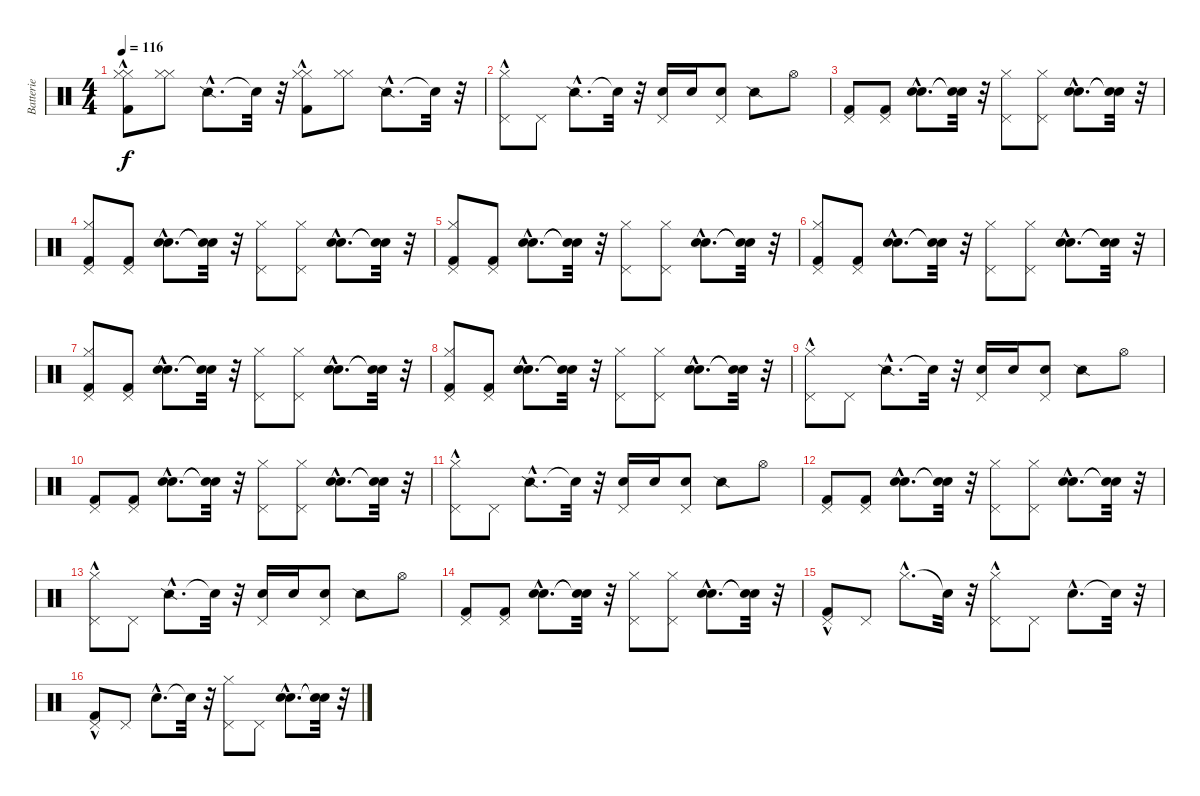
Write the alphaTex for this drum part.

\track ("Batterie" "Batterie") {instrument percussion}
\staff {score}
\articulation defaults
\ts (4 4)
\tempo 116
\clef neutral
\ks c
("Kick (hit) 2"{hac} "Hi-Hat (closed)" "Hi-Hat (closed)").8{dy f} ("Hi-Hat (closed)" "Hi-Hat (closed)").8 "Snare (side stick) 2"{hac}.8{d} "Snare (hit)"{t}.32 r.32 ("Kick (hit) 2"{hac} "Hi-Hat (closed)" "Hi-Hat (closed)").8 ("Hi-Hat (closed)" "Hi-Hat (closed)").8 "Snare (side stick) 2"{hac}.8{d} "Snare (hit)"{t}.32 r.32 |
("Hi-Hat (closed)"{hac} "Pedal Hi-Hat (hit)").8 "Pedal Hi-Hat (hit)".8 "Snare (side stick) 2"{hac}.8{d} "Snare (hit)"{t}.32 r.32 ("Electric Snare (hit)" "Pedal Hi-Hat (hit)").16 "Electric Snare (hit)".16 ("Electric Snare (hit)" "Pedal Hi-Hat (hit)").8 "Snare (side stick) 2".8 "Hi-Hat (open)".8 |
("Kick (hit) 2" "Pedal Hi-Hat (hit)").8 ("Kick (hit) 2" "Pedal Hi-Hat (hit)").8 ("Snare (hit) 2"{hac} "Electric Snare (hit)"{hac}).8{d} ("Snare (hit)"{t} "Snare (hit)"{t}).32 r.32 ("Hi-Hat (closed)" "Pedal Hi-Hat (hit)").8 ("Hi-Hat (closed)" "Pedal Hi-Hat (hit)").8 ("Snare (hit) 2"{hac} "Electric Snare (hit)"{hac}).8{d} ("Snare (hit)"{t} "Snare (hit)"{t}).32 r.32 |
("Kick (hit) 2" "Hi-Hat (closed)" "Pedal Hi-Hat (hit)").8 ("Kick (hit) 2" "Pedal Hi-Hat (hit)").8 ("Snare (hit) 2"{hac} "Electric Snare (hit)"{hac}).8{d} ("Snare (hit)"{t} "Snare (hit)"{t}).32 r.32 ("Hi-Hat (closed)" "Pedal Hi-Hat (hit)").8 ("Hi-Hat (closed)" "Pedal Hi-Hat (hit)").8 ("Snare (hit) 2"{hac} "Electric Snare (hit)"{hac}).8{d} ("Snare (hit)"{t} "Snare (hit)"{t}).32 r.32 |
("Kick (hit) 2" "Hi-Hat (closed)" "Pedal Hi-Hat (hit)").8 ("Kick (hit) 2" "Pedal Hi-Hat (hit)").8 ("Snare (hit) 2"{hac} "Electric Snare (hit)"{hac}).8{d} ("Snare (hit)"{t} "Snare (hit)"{t}).32 r.32 ("Hi-Hat (closed)" "Pedal Hi-Hat (hit)").8 ("Hi-Hat (closed)" "Pedal Hi-Hat (hit)").8 ("Snare (hit) 2"{hac} "Electric Snare (hit)"{hac}).8{d} ("Snare (hit)"{t} "Snare (hit)"{t}).32 r.32 |
("Kick (hit) 2" "Hi-Hat (closed)" "Pedal Hi-Hat (hit)").8 ("Kick (hit) 2" "Pedal Hi-Hat (hit)").8 ("Snare (hit) 2"{hac} "Electric Snare (hit)"{hac}).8{d} ("Snare (hit)"{t} "Snare (hit)"{t}).32 r.32 ("Hi-Hat (closed)" "Pedal Hi-Hat (hit)").8 ("Hi-Hat (closed)" "Pedal Hi-Hat (hit)").8 ("Snare (hit) 2"{hac} "Electric Snare (hit)"{hac}).8{d} ("Snare (hit)"{t} "Snare (hit)"{t}).32 r.32 |
("Kick (hit) 2" "Hi-Hat (closed)" "Pedal Hi-Hat (hit)").8 ("Kick (hit) 2" "Pedal Hi-Hat (hit)").8 ("Snare (hit) 2"{hac} "Electric Snare (hit)"{hac}).8{d} ("Snare (hit)"{t} "Snare (hit)"{t}).32 r.32 ("Hi-Hat (closed)" "Pedal Hi-Hat (hit)").8 ("Hi-Hat (closed)" "Pedal Hi-Hat (hit)").8 ("Snare (hit) 2"{hac} "Electric Snare (hit)"{hac}).8{d} ("Snare (hit)"{t} "Snare (hit)"{t}).32 r.32 |
("Kick (hit) 2" "Hi-Hat (closed)" "Pedal Hi-Hat (hit)").8 ("Kick (hit) 2" "Pedal Hi-Hat (hit)").8 ("Snare (hit) 2"{hac} "Electric Snare (hit)"{hac}).8{d} ("Snare (hit)"{t} "Snare (hit)"{t}).32 r.32 ("Hi-Hat (closed)" "Pedal Hi-Hat (hit)").8 ("Hi-Hat (closed)" "Pedal Hi-Hat (hit)").8 ("Snare (hit) 2"{hac} "Electric Snare (hit)"{hac}).8{d} ("Snare (hit)"{t} "Snare (hit)"{t}).32 r.32 |
("Hi-Hat (closed)"{hac} "Pedal Hi-Hat (hit)").8 "Pedal Hi-Hat (hit)".8 "Snare (side stick) 2"{hac}.8{d} "Snare (hit)"{t}.32 r.32 ("Electric Snare (hit)" "Pedal Hi-Hat (hit)").16 "Electric Snare (hit)".16 ("Electric Snare (hit)" "Pedal Hi-Hat (hit)").8 "Snare (side stick) 2".8 "Hi-Hat (open)".8 |
("Kick (hit) 2" "Pedal Hi-Hat (hit)").8 ("Kick (hit) 2" "Pedal Hi-Hat (hit)").8 ("Snare (hit) 2"{hac} "Electric Snare (hit)"{hac}).8{d} ("Snare (hit)"{t} "Snare (hit)"{t}).32 r.32 ("Hi-Hat (closed)" "Pedal Hi-Hat (hit)").8 ("Hi-Hat (closed)" "Pedal Hi-Hat (hit)").8 ("Snare (hit) 2"{hac} "Electric Snare (hit)"{hac}).8{d} ("Snare (hit)"{t} "Snare (hit)"{t}).32 r.32 |
("Hi-Hat (closed)"{hac} "Pedal Hi-Hat (hit)").8 "Pedal Hi-Hat (hit)".8 "Snare (side stick) 2"{hac}.8{d} "Snare (hit)"{t}.32 r.32 ("Electric Snare (hit)" "Pedal Hi-Hat (hit)").16 "Electric Snare (hit)".16 ("Electric Snare (hit)" "Pedal Hi-Hat (hit)").8 "Snare (side stick) 2".8 "Hi-Hat (open)".8 |
("Kick (hit) 2" "Pedal Hi-Hat (hit)").8 ("Kick (hit) 2" "Pedal Hi-Hat (hit)").8 ("Snare (hit) 2"{hac} "Electric Snare (hit)"{hac}).8{d} ("Snare (hit)"{t} "Snare (hit)"{t}).32 r.32 ("Hi-Hat (closed)" "Pedal Hi-Hat (hit)").8 ("Hi-Hat (closed)" "Pedal Hi-Hat (hit)").8 ("Snare (hit) 2"{hac} "Electric Snare (hit)"{hac}).8{d} ("Snare (hit)"{t} "Snare (hit)"{t}).32 r.32 |
("Hi-Hat (closed)"{hac} "Pedal Hi-Hat (hit)").8 "Pedal Hi-Hat (hit)".8 "Snare (side stick) 2"{hac}.8{d} "Snare (hit)"{t}.32 r.32 ("Electric Snare (hit)" "Pedal Hi-Hat (hit)").16 "Electric Snare (hit)".16 ("Electric Snare (hit)" "Pedal Hi-Hat (hit)").8 "Snare (side stick) 2".8 "Hi-Hat (open)".8 |
("Kick (hit) 2" "Pedal Hi-Hat (hit)").8 ("Kick (hit) 2" "Pedal Hi-Hat (hit)").8 ("Snare (hit) 2"{hac} "Electric Snare (hit)"{hac}).8{d} ("Snare (hit)"{t} "Snare (hit)"{t}).32 r.32 ("Hi-Hat (closed)" "Pedal Hi-Hat (hit)").8 ("Hi-Hat (closed)" "Pedal Hi-Hat (hit)").8 ("Snare (hit) 2"{hac} "Electric Snare (hit)"{hac}).8{d} ("Snare (hit)"{t} "Snare (hit)"{t}).32 r.32 |
("Kick (hit) 2"{hac} "Pedal Hi-Hat (hit)").8 "Pedal Hi-Hat (hit)".8 "Hi-Hat (closed)"{hac}.8{d} "Snare (hit)"{t}.32 r.32 ("Hi-Hat (closed)"{hac} "Pedal Hi-Hat (hit)").8 "Pedal Hi-Hat (hit)".8 "Snare (hit) 2"{hac}.8{d} "Snare (hit)"{t}.32 r.32 |
("Kick (hit) 2"{hac} "Pedal Hi-Hat (hit)").8 "Pedal Hi-Hat (hit)".8 "Snare (hit) 2"{hac}.8{d} "Snare (hit)"{t}.32 r.32 ("Hi-Hat (closed)" "Pedal Hi-Hat (hit)").8 "Pedal Hi-Hat (hit)".8 ("Snare (hit) 2"{hac} "Electric Snare (hit)"{hac}).8{d} ("Snare (hit)"{t} "Snare (hit)"{t}).32 r.32
